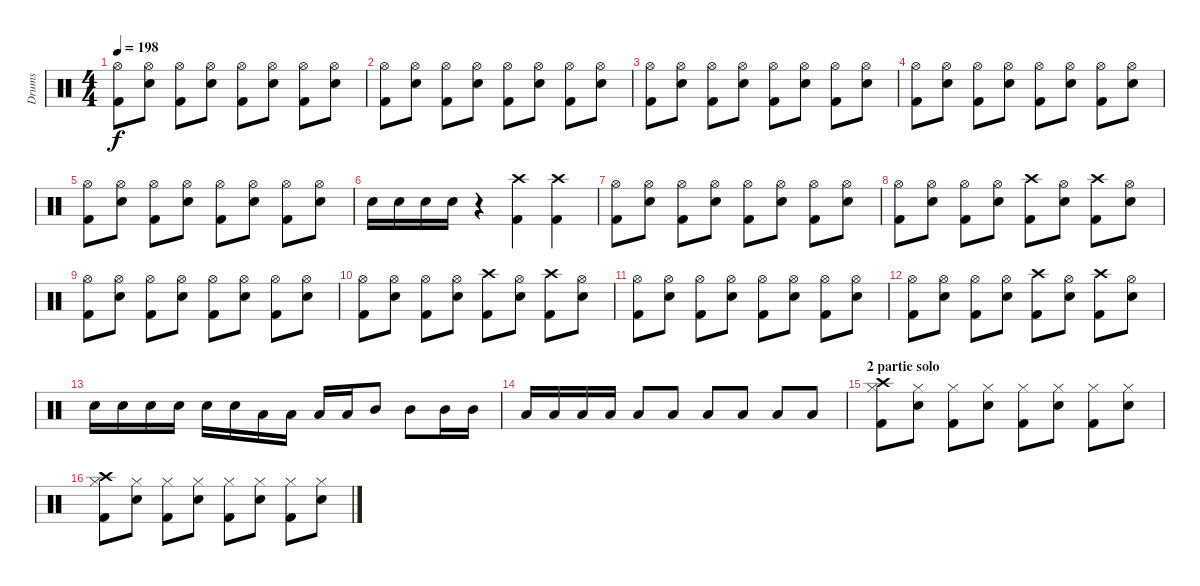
\track ("Drums" "Drums") {instrument percussion}
\staff {score}
\articulation defaults
\ts (4 4)
\tempo 198
\clef neutral
\ks c
("Hi-Hat (open)" "Kick (hit) 2").8{dy f} ("Hi-Hat (open)" "Snare (hit) 2").8 ("Hi-Hat (open)" "Kick (hit) 2").8 ("Hi-Hat (open)" "Snare (hit) 2").8 ("Hi-Hat (open)" "Kick (hit) 2").8 ("Hi-Hat (open)" "Snare (hit) 2").8 ("Hi-Hat (open)" "Kick (hit) 2").8 ("Hi-Hat (open)" "Snare (hit) 2").8 |
("Hi-Hat (open)" "Kick (hit) 2").8 ("Hi-Hat (open)" "Snare (hit) 2").8 ("Hi-Hat (open)" "Kick (hit) 2").8 ("Hi-Hat (open)" "Snare (hit) 2").8 ("Hi-Hat (open)" "Kick (hit) 2").8 ("Hi-Hat (open)" "Snare (hit) 2").8 ("Hi-Hat (open)" "Kick (hit) 2").8 ("Hi-Hat (open)" "Snare (hit) 2").8 |
("Hi-Hat (open)" "Kick (hit) 2").8 ("Hi-Hat (open)" "Snare (hit) 2").8 ("Hi-Hat (open)" "Kick (hit) 2").8 ("Hi-Hat (open)" "Snare (hit) 2").8 ("Hi-Hat (open)" "Kick (hit) 2").8 ("Hi-Hat (open)" "Snare (hit) 2").8 ("Hi-Hat (open)" "Kick (hit) 2").8 ("Hi-Hat (open)" "Snare (hit) 2").8 |
("Hi-Hat (open)" "Kick (hit) 2").8 ("Hi-Hat (open)" "Snare (hit) 2").8 ("Hi-Hat (open)" "Kick (hit) 2").8 ("Hi-Hat (open)" "Snare (hit) 2").8 ("Hi-Hat (open)" "Kick (hit) 2").8 ("Hi-Hat (open)" "Snare (hit) 2").8 ("Hi-Hat (open)" "Kick (hit) 2").8 ("Hi-Hat (open)" "Snare (hit) 2").8 |
("Hi-Hat (open)" "Kick (hit) 2").8 ("Hi-Hat (open)" "Snare (hit) 2").8 ("Hi-Hat (open)" "Kick (hit) 2").8 ("Hi-Hat (open)" "Snare (hit) 2").8 ("Hi-Hat (open)" "Kick (hit) 2").8 ("Hi-Hat (open)" "Snare (hit) 2").8 ("Hi-Hat (open)" "Kick (hit) 2").8 ("Hi-Hat (open)" "Snare (hit) 2").8 |
"Snare (hit) 2".16 "Snare (hit) 2".16 "Snare (hit) 2".16 "Snare (hit) 2".16 r.4 ("Crash high (hit)" "Kick (hit) 2").4 ("Crash high (hit)" "Kick (hit) 2").4 |
("Hi-Hat (open)" "Kick (hit) 2").8 ("Hi-Hat (open)" "Snare (hit) 2").8 ("Hi-Hat (open)" "Kick (hit) 2").8 ("Hi-Hat (open)" "Snare (hit) 2").8 ("Hi-Hat (open)" "Kick (hit) 2").8 ("Hi-Hat (open)" "Snare (hit) 2").8 ("Hi-Hat (open)" "Kick (hit) 2").8 ("Hi-Hat (open)" "Snare (hit) 2").8 |
("Hi-Hat (open)" "Kick (hit) 2").8 ("Hi-Hat (open)" "Snare (hit) 2").8 ("Hi-Hat (open)" "Kick (hit) 2").8 ("Hi-Hat (open)" "Snare (hit) 2").8 ("Crash high (hit)" "Kick (hit) 2").8 ("Hi-Hat (open)" "Snare (hit) 2").8 ("Crash high (hit)" "Kick (hit) 2").8 ("Hi-Hat (open)" "Snare (hit) 2").8 |
("Hi-Hat (open)" "Kick (hit) 2").8 ("Hi-Hat (open)" "Snare (hit) 2").8 ("Hi-Hat (open)" "Kick (hit) 2").8 ("Hi-Hat (open)" "Snare (hit) 2").8 ("Hi-Hat (open)" "Kick (hit) 2").8 ("Hi-Hat (open)" "Snare (hit) 2").8 ("Hi-Hat (open)" "Kick (hit) 2").8 ("Hi-Hat (open)" "Snare (hit) 2").8 |
("Hi-Hat (open)" "Kick (hit) 2").8 ("Hi-Hat (open)" "Snare (hit) 2").8 ("Hi-Hat (open)" "Kick (hit) 2").8 ("Hi-Hat (open)" "Snare (hit) 2").8 ("Crash high (hit)" "Kick (hit) 2").8 ("Hi-Hat (open)" "Snare (hit) 2").8 ("Crash high (hit)" "Kick (hit) 2").8 ("Hi-Hat (open)" "Snare (hit) 2").8 |
("Hi-Hat (open)" "Kick (hit) 2").8 ("Hi-Hat (open)" "Snare (hit) 2").8 ("Hi-Hat (open)" "Kick (hit) 2").8 ("Hi-Hat (open)" "Snare (hit) 2").8 ("Hi-Hat (open)" "Kick (hit) 2").8 ("Hi-Hat (open)" "Snare (hit) 2").8 ("Hi-Hat (open)" "Kick (hit) 2").8 ("Hi-Hat (open)" "Snare (hit) 2").8 |
("Hi-Hat (open)" "Kick (hit) 2").8 ("Hi-Hat (open)" "Snare (hit) 2").8 ("Hi-Hat (open)" "Kick (hit) 2").8 ("Hi-Hat (open)" "Snare (hit) 2").8 ("Crash high (hit)" "Kick (hit) 2").8 ("Hi-Hat (open)" "Snare (hit) 2").8 ("Crash high (hit)" "Kick (hit) 2").8 ("Hi-Hat (open)" "Snare (hit) 2").8 |
"Snare (hit) 2".16 "Snare (hit) 2".16 "Snare (hit) 2".16 "Snare (hit) 2".16 "Snare (hit) 2".16 "Snare (hit) 2".16 "Low Tom (hit)".16 "Low Tom (hit)".16 "Low Tom (hit)".16 "Low Tom (hit)".16 "Mid Tom (hit)".8 "Mid Tom (hit)".8 "Mid Tom (hit)".16 "Mid Tom (hit)".16 |
"Low Floor Tom (hit)".16 "Low Floor Tom (hit)".16 "Low Floor Tom (hit)".16 "Low Floor Tom (hit)".16 "Low Floor Tom (hit)".8 "Low Floor Tom (hit)".8 "Low Floor Tom (hit)".8 "Low Floor Tom (hit)".8 "Low Floor Tom (hit)".8 "Low Floor Tom (hit)".8 |
\section ("" "2 partie solo")
("Crash high (hit)" "Hi-Hat (closed)" "Kick (hit) 2").8 ("Hi-Hat (closed)" "Snare (hit) 2").8 ("Hi-Hat (closed)" "Kick (hit) 2").8 ("Hi-Hat (closed)" "Snare (hit) 2").8 ("Hi-Hat (closed)" "Kick (hit) 2").8 ("Hi-Hat (closed)" "Snare (hit) 2").8 ("Hi-Hat (closed)" "Kick (hit) 2").8 ("Hi-Hat (closed)" "Snare (hit) 2").8 |
("Crash high (hit)" "Hi-Hat (closed)" "Kick (hit) 2").8 ("Hi-Hat (closed)" "Snare (hit) 2").8 ("Hi-Hat (closed)" "Kick (hit) 2").8 ("Hi-Hat (closed)" "Snare (hit) 2").8 ("Hi-Hat (closed)" "Kick (hit) 2").8 ("Hi-Hat (closed)" "Snare (hit) 2").8 ("Hi-Hat (closed)" "Kick (hit) 2").8 ("Hi-Hat (closed)" "Snare (hit) 2").8
